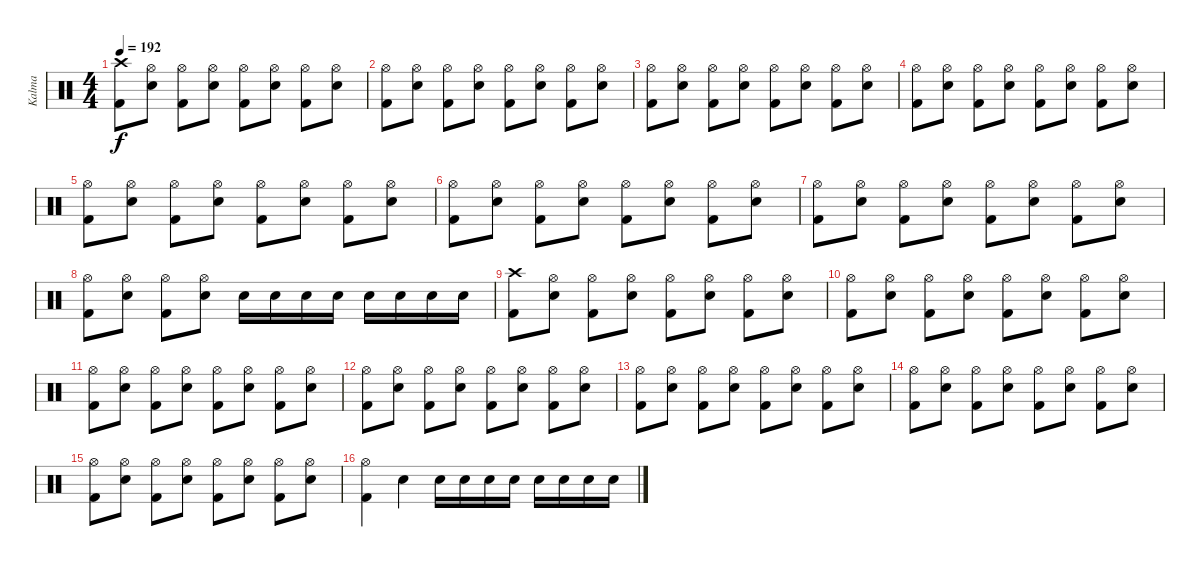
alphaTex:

\track ("Kalma" "Kalma") {instrument percussion}
\staff {score}
\articulation defaults
\ts (4 4)
\tempo 192
\clef neutral
\ks c
("Crash high (hit)" "Kick (hit) 2").8{dy f} ("Hi-Hat (open)" "Snare (hit) 2").8 ("Hi-Hat (open)" "Kick (hit) 2").8 ("Hi-Hat (open)" "Snare (hit) 2").8 ("Hi-Hat (open)" "Kick (hit) 2").8 ("Hi-Hat (open)" "Snare (hit) 2").8 ("Hi-Hat (open)" "Kick (hit) 2").8 ("Hi-Hat (open)" "Snare (hit) 2").8 |
("Hi-Hat (open)" "Kick (hit) 2").8 ("Hi-Hat (open)" "Snare (hit) 2").8 ("Hi-Hat (open)" "Kick (hit) 2").8 ("Hi-Hat (open)" "Snare (hit) 2").8 ("Hi-Hat (open)" "Kick (hit) 2").8 ("Hi-Hat (open)" "Snare (hit) 2").8 ("Hi-Hat (open)" "Kick (hit) 2").8 ("Hi-Hat (open)" "Snare (hit) 2").8 |
("Hi-Hat (open)" "Kick (hit) 2").8 ("Hi-Hat (open)" "Snare (hit) 2").8 ("Hi-Hat (open)" "Kick (hit) 2").8 ("Hi-Hat (open)" "Snare (hit) 2").8 ("Hi-Hat (open)" "Kick (hit) 2").8 ("Hi-Hat (open)" "Snare (hit) 2").8 ("Hi-Hat (open)" "Kick (hit) 2").8 ("Hi-Hat (open)" "Snare (hit) 2").8 |
("Hi-Hat (open)" "Kick (hit) 2").8 ("Hi-Hat (open)" "Snare (hit) 2").8 ("Hi-Hat (open)" "Kick (hit) 2").8 ("Hi-Hat (open)" "Snare (hit) 2").8 ("Hi-Hat (open)" "Kick (hit) 2").8 ("Hi-Hat (open)" "Snare (hit) 2").8 ("Hi-Hat (open)" "Kick (hit) 2").8 ("Hi-Hat (open)" "Snare (hit) 2").8 |
("Hi-Hat (open)" "Kick (hit) 2").8 ("Hi-Hat (open)" "Snare (hit) 2").8 ("Hi-Hat (open)" "Kick (hit) 2").8 ("Hi-Hat (open)" "Snare (hit) 2").8 ("Hi-Hat (open)" "Kick (hit) 2").8 ("Hi-Hat (open)" "Snare (hit) 2").8 ("Hi-Hat (open)" "Kick (hit) 2").8 ("Hi-Hat (open)" "Snare (hit) 2").8 |
("Hi-Hat (open)" "Kick (hit) 2").8 ("Hi-Hat (open)" "Snare (hit) 2").8 ("Hi-Hat (open)" "Kick (hit) 2").8 ("Hi-Hat (open)" "Snare (hit) 2").8 ("Hi-Hat (open)" "Kick (hit) 2").8 ("Hi-Hat (open)" "Snare (hit) 2").8 ("Hi-Hat (open)" "Kick (hit) 2").8 ("Hi-Hat (open)" "Snare (hit) 2").8 |
("Hi-Hat (open)" "Kick (hit) 2").8 ("Hi-Hat (open)" "Snare (hit) 2").8 ("Hi-Hat (open)" "Kick (hit) 2").8 ("Hi-Hat (open)" "Snare (hit) 2").8 ("Hi-Hat (open)" "Kick (hit) 2").8 ("Hi-Hat (open)" "Snare (hit) 2").8 ("Hi-Hat (open)" "Kick (hit) 2").8 ("Hi-Hat (open)" "Snare (hit) 2").8 |
("Hi-Hat (open)" "Kick (hit) 2").8 ("Hi-Hat (open)" "Snare (hit) 2").8 ("Hi-Hat (open)" "Kick (hit) 2").8 ("Hi-Hat (open)" "Snare (hit) 2").8 "Snare (hit) 2".16 "Snare (hit) 2".16 "Snare (hit) 2".16 "Snare (hit) 2".16 "Snare (hit) 2".16 "Snare (hit) 2".16 "Snare (hit) 2".16 "Snare (hit) 2".16 |
("Crash high (hit)" "Kick (hit) 2").8 ("Hi-Hat (open)" "Snare (hit) 2").8 ("Hi-Hat (open)" "Kick (hit) 2").8 ("Hi-Hat (open)" "Snare (hit) 2").8 ("Hi-Hat (open)" "Kick (hit) 2").8 ("Hi-Hat (open)" "Snare (hit) 2").8 ("Hi-Hat (open)" "Kick (hit) 2").8 ("Hi-Hat (open)" "Snare (hit) 2").8 |
("Hi-Hat (open)" "Kick (hit) 2").8 ("Hi-Hat (open)" "Snare (hit) 2").8 ("Hi-Hat (open)" "Kick (hit) 2").8 ("Hi-Hat (open)" "Snare (hit) 2").8 ("Hi-Hat (open)" "Kick (hit) 2").8 ("Hi-Hat (open)" "Snare (hit) 2").8 ("Hi-Hat (open)" "Kick (hit) 2").8 ("Hi-Hat (open)" "Snare (hit) 2").8 |
("Hi-Hat (open)" "Kick (hit) 2").8 ("Hi-Hat (open)" "Snare (hit) 2").8 ("Hi-Hat (open)" "Kick (hit) 2").8 ("Hi-Hat (open)" "Snare (hit) 2").8 ("Hi-Hat (open)" "Kick (hit) 2").8 ("Hi-Hat (open)" "Snare (hit) 2").8 ("Hi-Hat (open)" "Kick (hit) 2").8 ("Hi-Hat (open)" "Snare (hit) 2").8 |
("Hi-Hat (open)" "Kick (hit) 2").8 ("Hi-Hat (open)" "Snare (hit) 2").8 ("Hi-Hat (open)" "Kick (hit) 2").8 ("Hi-Hat (open)" "Snare (hit) 2").8 ("Hi-Hat (open)" "Kick (hit) 2").8 ("Hi-Hat (open)" "Snare (hit) 2").8 ("Hi-Hat (open)" "Kick (hit) 2").8 ("Hi-Hat (open)" "Snare (hit) 2").8 |
("Hi-Hat (open)" "Kick (hit) 2").8 ("Hi-Hat (open)" "Snare (hit) 2").8 ("Hi-Hat (open)" "Kick (hit) 2").8 ("Hi-Hat (open)" "Snare (hit) 2").8 ("Hi-Hat (open)" "Kick (hit) 2").8 ("Hi-Hat (open)" "Snare (hit) 2").8 ("Hi-Hat (open)" "Kick (hit) 2").8 ("Hi-Hat (open)" "Snare (hit) 2").8 |
("Hi-Hat (open)" "Kick (hit) 2").8 ("Hi-Hat (open)" "Snare (hit) 2").8 ("Hi-Hat (open)" "Kick (hit) 2").8 ("Hi-Hat (open)" "Snare (hit) 2").8 ("Hi-Hat (open)" "Kick (hit) 2").8 ("Hi-Hat (open)" "Snare (hit) 2").8 ("Hi-Hat (open)" "Kick (hit) 2").8 ("Hi-Hat (open)" "Snare (hit) 2").8 |
("Hi-Hat (open)" "Kick (hit) 2").8 ("Hi-Hat (open)" "Snare (hit) 2").8 ("Hi-Hat (open)" "Kick (hit) 2").8 ("Hi-Hat (open)" "Snare (hit) 2").8 ("Hi-Hat (open)" "Kick (hit) 2").8 ("Hi-Hat (open)" "Snare (hit) 2").8 ("Hi-Hat (open)" "Kick (hit) 2").8 ("Hi-Hat (open)" "Snare (hit) 2").8 |
("Hi-Hat (open)" "Kick (hit) 2").4 "Snare (hit) 2".4 "Snare (hit) 2".16 "Snare (hit) 2".16 "Snare (hit) 2".16 "Snare (hit) 2".16 "Snare (hit) 2".16 "Snare (hit) 2".16 "Snare (hit) 2".16 "Snare (hit) 2".16
